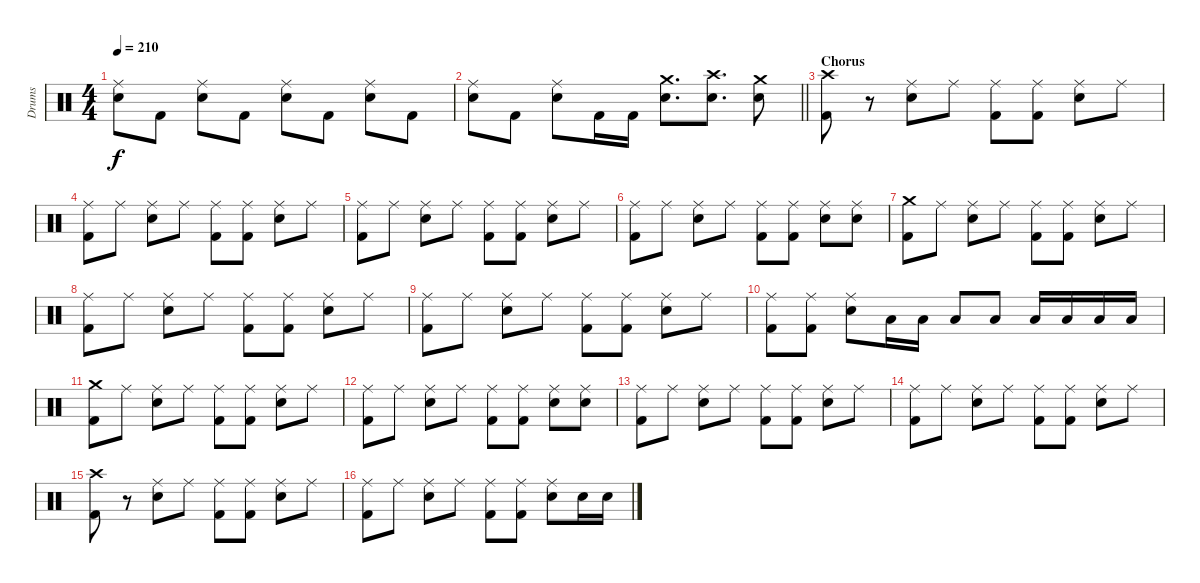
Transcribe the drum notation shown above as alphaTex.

\track ("Drums" "Drums") {instrument percussion}
\staff {score}
\articulation defaults
\ts (4 4)
\tempo 210
\clef neutral
\ks c
("Ride (middle)" "Electric Snare (hit)").8{dy f} "Kick (hit) 2".8 ("Ride (middle)" "Electric Snare (hit)").8 "Kick (hit) 2".8 ("Ride (middle)" "Electric Snare (hit)").8 "Kick (hit) 2".8 ("Ride (middle)" "Electric Snare (hit)").8 "Kick (hit) 2".8 |
\barLineRight lightlight
("Ride (middle)" "Electric Snare (hit)").8 "Kick (hit) 2".8 ("Ride (middle)" "Electric Snare (hit)").8 "Kick (hit) 2".16 "Kick (hit) 2".16 ("Crash medium (hit)" "Electric Snare (hit)").8{d} ("Crash high (hit)" "Electric Snare (hit)").8{d} ("Crash medium (hit)" "Electric Snare (hit)").8 |
\section ("" "Chorus")
("Crash high (hit)" "Kick (hit) 2").8 r.8 ("Ride (middle)" "Electric Snare (hit)").8 "Ride (middle)".8 ("Ride (middle)" "Kick (hit) 2").8 ("Ride (middle)" "Kick (hit) 2").8 ("Ride (middle)" "Electric Snare (hit)").8 "Ride (middle)".8 |
("Ride (middle)" "Kick (hit) 2").8 "Ride (middle)".8 ("Ride (middle)" "Electric Snare (hit)").8 "Ride (middle)".8 ("Ride (middle)" "Kick (hit) 2").8 ("Ride (middle)" "Kick (hit) 2").8 ("Ride (middle)" "Electric Snare (hit)").8 "Ride (middle)".8 |
("Ride (middle)" "Kick (hit) 2").8 "Ride (middle)".8 ("Ride (middle)" "Electric Snare (hit)").8 "Ride (middle)".8 ("Ride (middle)" "Kick (hit) 2").8 ("Ride (middle)" "Kick (hit) 2").8 ("Ride (middle)" "Electric Snare (hit)").8 "Ride (middle)".8 |
("Ride (middle)" "Kick (hit) 2").8 "Ride (middle)".8 ("Ride (middle)" "Electric Snare (hit)").8 "Ride (middle)".8 ("Ride (middle)" "Kick (hit) 2").8 ("Ride (middle)" "Kick (hit) 2").8 ("Ride (middle)" "Electric Snare (hit)").8 ("Ride (middle)" "Electric Snare (hit)").8 |
("Crash medium (hit)" "Kick (hit) 2").8 "Ride (middle)".8 ("Ride (middle)" "Electric Snare (hit)").8 "Ride (middle)".8 ("Ride (middle)" "Kick (hit) 2").8 ("Ride (middle)" "Kick (hit) 2").8 ("Ride (middle)" "Electric Snare (hit)").8 "Ride (middle)".8 |
("Ride (middle)" "Kick (hit) 2").8 "Ride (middle)".8 ("Ride (middle)" "Electric Snare (hit)").8 "Ride (middle)".8 ("Ride (middle)" "Kick (hit) 2").8 ("Ride (middle)" "Kick (hit) 2").8 ("Ride (middle)" "Electric Snare (hit)").8 "Ride (middle)".8 |
("Ride (middle)" "Kick (hit) 2").8 "Ride (middle)".8 ("Ride (middle)" "Electric Snare (hit)").8 "Ride (middle)".8 ("Ride (middle)" "Kick (hit) 2").8 ("Ride (middle)" "Kick (hit) 2").8 ("Ride (middle)" "Electric Snare (hit)").8 "Ride (middle)".8 |
("Ride (middle)" "Kick (hit) 2").8 ("Ride (middle)" "Kick (hit) 2").8 ("Ride (middle)" "Electric Snare (hit)").8 "Low Tom (hit)".16 "Low Tom (hit)".16 "Low Tom (hit)".8 "Low Tom (hit)".8 "Low Floor Tom (hit)".16 "Low Floor Tom (hit)".16 "Low Floor Tom (hit)".16 "Low Floor Tom (hit)".16 |
("Crash medium (hit)" "Kick (hit) 2").8 "Ride (middle)".8 ("Ride (middle)" "Electric Snare (hit)").8 "Ride (middle)".8 ("Ride (middle)" "Kick (hit) 2").8 ("Ride (middle)" "Kick (hit) 2").8 ("Ride (middle)" "Electric Snare (hit)").8 "Ride (middle)".8 |
("Ride (middle)" "Kick (hit) 2").8 "Ride (middle)".8 ("Ride (middle)" "Electric Snare (hit)").8 "Ride (middle)".8 ("Ride (middle)" "Kick (hit) 2").8 ("Ride (middle)" "Kick (hit) 2").8 ("Ride (middle)" "Electric Snare (hit)").8 ("Ride (middle)" "Electric Snare (hit)").8 |
("Ride (middle)" "Kick (hit) 2").8 "Ride (middle)".8 ("Ride (middle)" "Electric Snare (hit)").8 "Ride (middle)".8 ("Ride (middle)" "Kick (hit) 2").8 ("Ride (middle)" "Kick (hit) 2").8 ("Ride (middle)" "Electric Snare (hit)").8 "Ride (middle)".8 |
("Ride (middle)" "Kick (hit) 2").8 "Ride (middle)".8 ("Ride (middle)" "Electric Snare (hit)").8 "Ride (middle)".8 ("Ride (middle)" "Kick (hit) 2").8 ("Ride (middle)" "Kick (hit) 2").8 ("Ride (middle)" "Electric Snare (hit)").8 "Ride (middle)".8 |
("Crash high (hit)" "Kick (hit) 2").8 r.8 ("Ride (middle)" "Electric Snare (hit)").8 "Ride (middle)".8 ("Ride (middle)" "Kick (hit) 2").8 ("Ride (middle)" "Kick (hit) 2").8 ("Ride (middle)" "Electric Snare (hit)").8 "Ride (middle)".8 |
("Ride (middle)" "Kick (hit) 2").8 "Ride (middle)".8 ("Ride (middle)" "Electric Snare (hit)").8 "Ride (middle)".8 ("Ride (middle)" "Kick (hit) 2").8 ("Ride (middle)" "Kick (hit) 2").8 ("Ride (middle)" "Electric Snare (hit)").8 "Electric Snare (hit)".16 "Electric Snare (hit)".16
